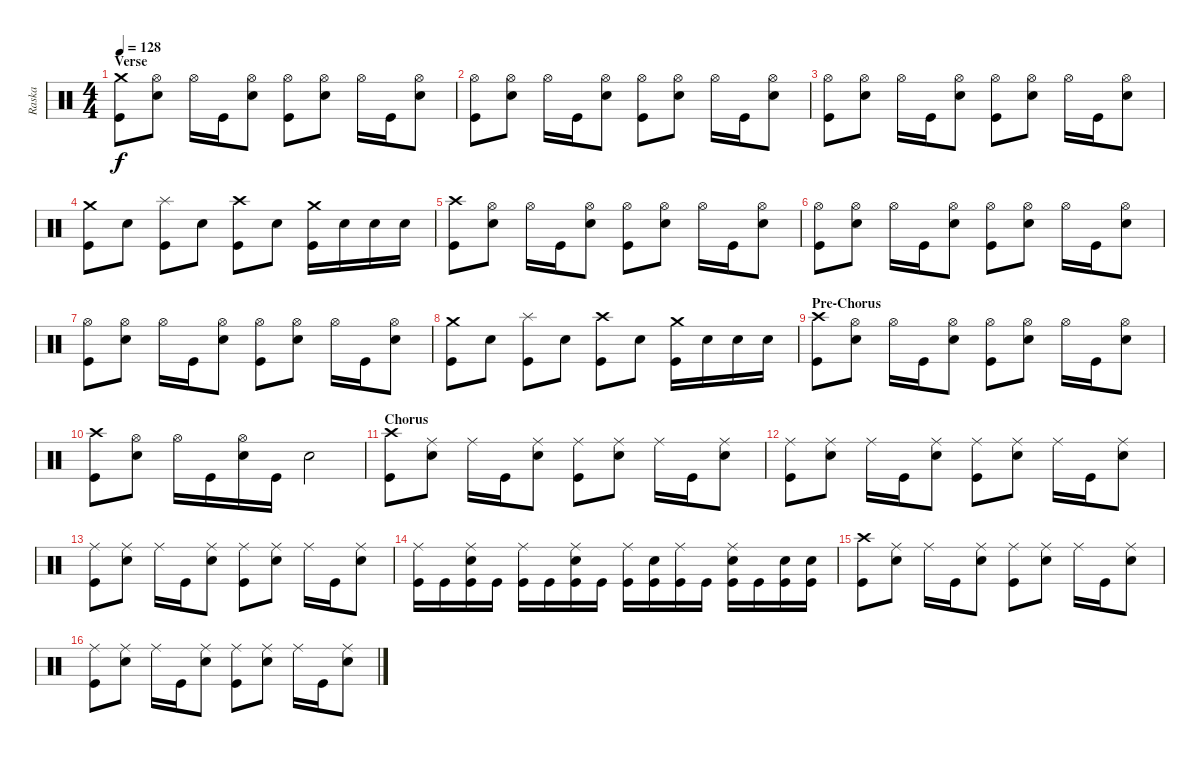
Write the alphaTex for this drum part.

\track ("Raska" "Raska") {instrument percussion}
\staff {score}
\articulation defaults
\ts (4 4)
\section ("" "Verse")
\tempo 128
\clef neutral
\ks c
("Crash medium (hit)" "Kick (hit)").8{dy f} ("Hi-Hat (open)" "Electric Snare (hit)").8 "Hi-Hat (open)".16 "Kick (hit)".16 ("Hi-Hat (open)" "Electric Snare (hit)").8 ("Hi-Hat (open)" "Kick (hit)").8 ("Hi-Hat (open)" "Electric Snare (hit)").8 "Hi-Hat (open)".16 "Kick (hit)".16 ("Hi-Hat (open)" "Electric Snare (hit)").8 |
("Hi-Hat (open)" "Kick (hit)").8 ("Hi-Hat (open)" "Electric Snare (hit)").8 "Hi-Hat (open)".16 "Kick (hit)".16 ("Hi-Hat (open)" "Electric Snare (hit)").8 ("Hi-Hat (open)" "Kick (hit)").8 ("Hi-Hat (open)" "Electric Snare (hit)").8 "Hi-Hat (open)".16 "Kick (hit)".16 ("Hi-Hat (open)" "Electric Snare (hit)").8 |
("Hi-Hat (open)" "Kick (hit)").8 ("Hi-Hat (open)" "Electric Snare (hit)").8 "Hi-Hat (open)".16 "Kick (hit)".16 ("Hi-Hat (open)" "Electric Snare (hit)").8 ("Hi-Hat (open)" "Kick (hit)").8 ("Hi-Hat (open)" "Electric Snare (hit)").8 "Hi-Hat (open)".16 "Kick (hit)".16 ("Hi-Hat (open)" "Electric Snare (hit)").8 |
("Crash medium (hit)" "Kick (hit)").8 "Electric Snare (hit)".8 ("Splash (hit)" "Kick (hit)").8 "Electric Snare (hit)".8 ("Crash high (hit)" "Kick (hit)").8 "Electric Snare (hit)".8 ("Crash medium (hit)" "Kick (hit)").16 "Electric Snare (hit)".16 "Electric Snare (hit)".16 "Electric Snare (hit)".16 |
("Crash high (hit)" "Kick (hit)").8 ("Hi-Hat (open)" "Electric Snare (hit)").8 "Hi-Hat (open)".16 "Kick (hit)".16 ("Hi-Hat (open)" "Electric Snare (hit)").8 ("Hi-Hat (open)" "Kick (hit)").8 ("Hi-Hat (open)" "Electric Snare (hit)").8 "Hi-Hat (open)".16 "Kick (hit)".16 ("Hi-Hat (open)" "Electric Snare (hit)").8 |
("Hi-Hat (open)" "Kick (hit)").8 ("Hi-Hat (open)" "Electric Snare (hit)").8 "Hi-Hat (open)".16 "Kick (hit)".16 ("Hi-Hat (open)" "Electric Snare (hit)").8 ("Hi-Hat (open)" "Kick (hit)").8 ("Hi-Hat (open)" "Electric Snare (hit)").8 "Hi-Hat (open)".16 "Kick (hit)".16 ("Hi-Hat (open)" "Electric Snare (hit)").8 |
("Hi-Hat (open)" "Kick (hit)").8 ("Hi-Hat (open)" "Electric Snare (hit)").8 "Hi-Hat (open)".16 "Kick (hit)".16 ("Hi-Hat (open)" "Electric Snare (hit)").8 ("Hi-Hat (open)" "Kick (hit)").8 ("Hi-Hat (open)" "Electric Snare (hit)").8 "Hi-Hat (open)".16 "Kick (hit)".16 ("Hi-Hat (open)" "Electric Snare (hit)").8 |
("Crash medium (hit)" "Kick (hit)").8 "Electric Snare (hit)".8 ("Splash (hit)" "Kick (hit)").8 "Electric Snare (hit)".8 ("Crash high (hit)" "Kick (hit)").8 "Electric Snare (hit)".8 ("Crash medium (hit)" "Kick (hit)").16 "Electric Snare (hit)".16 "Electric Snare (hit)".16 "Electric Snare (hit)".16 |
\section ("" "Pre-Chorus")
("Crash high (hit)" "Kick (hit)").8 ("Hi-Hat (open)" "Electric Snare (hit)").8 "Hi-Hat (open)".16 "Kick (hit)".16 ("Hi-Hat (open)" "Electric Snare (hit)").8 ("Hi-Hat (open)" "Kick (hit)").8 ("Hi-Hat (open)" "Electric Snare (hit)").8 "Hi-Hat (open)".16 "Kick (hit)".16 ("Hi-Hat (open)" "Electric Snare (hit)").8 |
("Crash high (hit)" "Kick (hit)").8 ("Hi-Hat (open)" "Electric Snare (hit)").8 "Hi-Hat (open)".16 "Kick (hit)".16 ("Hi-Hat (open)" "Electric Snare (hit)").16 "Kick (hit)".16 "Electric Snare (hit)".2 |
\section ("" "Chorus")
("Crash high (hit)" "Kick (hit)").8 ("Ride (middle)" "Electric Snare (hit)").8 "Ride (middle)".16 "Kick (hit)".16 ("Ride (middle)" "Electric Snare (hit)").8 ("Ride (middle)" "Kick (hit)").8 ("Ride (middle)" "Electric Snare (hit)").8 "Ride (middle)".16 "Kick (hit)".16 ("Ride (middle)" "Electric Snare (hit)").8 |
("Ride (middle)" "Kick (hit)").8 ("Ride (middle)" "Electric Snare (hit)").8 "Ride (middle)".16 "Kick (hit)".16 ("Ride (middle)" "Electric Snare (hit)").8 ("Ride (middle)" "Kick (hit)").8 ("Ride (middle)" "Electric Snare (hit)").8 "Ride (middle)".16 "Kick (hit)".16 ("Ride (middle)" "Electric Snare (hit)").8 |
("Ride (middle)" "Kick (hit)").8 ("Ride (middle)" "Electric Snare (hit)").8 "Ride (middle)".16 "Kick (hit)".16 ("Ride (middle)" "Electric Snare (hit)").8 ("Ride (middle)" "Kick (hit)").8 ("Ride (middle)" "Electric Snare (hit)").8 "Ride (middle)".16 "Kick (hit)".16 ("Ride (middle)" "Electric Snare (hit)").8 |
("Ride (middle)" "Kick (hit)").16 "Kick (hit)".16 ("Ride (middle)" "Electric Snare (hit)" "Kick (hit)").16 "Kick (hit)".16 ("Ride (middle)" "Kick (hit)").16 "Kick (hit)".16 ("Ride (middle)" "Electric Snare (hit)" "Kick (hit)").16 "Kick (hit)".16 ("Ride (middle)" "Kick (hit)").16 ("Electric Snare (hit)" "Kick (hit)").16 ("Ride (middle)" "Kick (hit)").16 "Kick (hit)".16 ("Ride (middle)" "Electric Snare (hit)" "Kick (hit)").16 "Kick (hit)".16 ("Electric Snare (hit)" "Kick (hit)").16 ("Electric Snare (hit)" "Kick (hit)").16 |
("Crash high (hit)" "Kick (hit)").8 ("Ride (middle)" "Electric Snare (hit)").8 "Ride (middle)".16 "Kick (hit)".16 ("Ride (middle)" "Electric Snare (hit)").8 ("Ride (middle)" "Kick (hit)").8 ("Ride (middle)" "Electric Snare (hit)").8 "Ride (middle)".16 "Kick (hit)".16 ("Ride (middle)" "Electric Snare (hit)").8 |
("Ride (middle)" "Kick (hit)").8 ("Ride (middle)" "Electric Snare (hit)").8 "Ride (middle)".16 "Kick (hit)".16 ("Ride (middle)" "Electric Snare (hit)").8 ("Ride (middle)" "Kick (hit)").8 ("Ride (middle)" "Electric Snare (hit)").8 "Ride (middle)".16 "Kick (hit)".16 ("Ride (middle)" "Electric Snare (hit)").8
